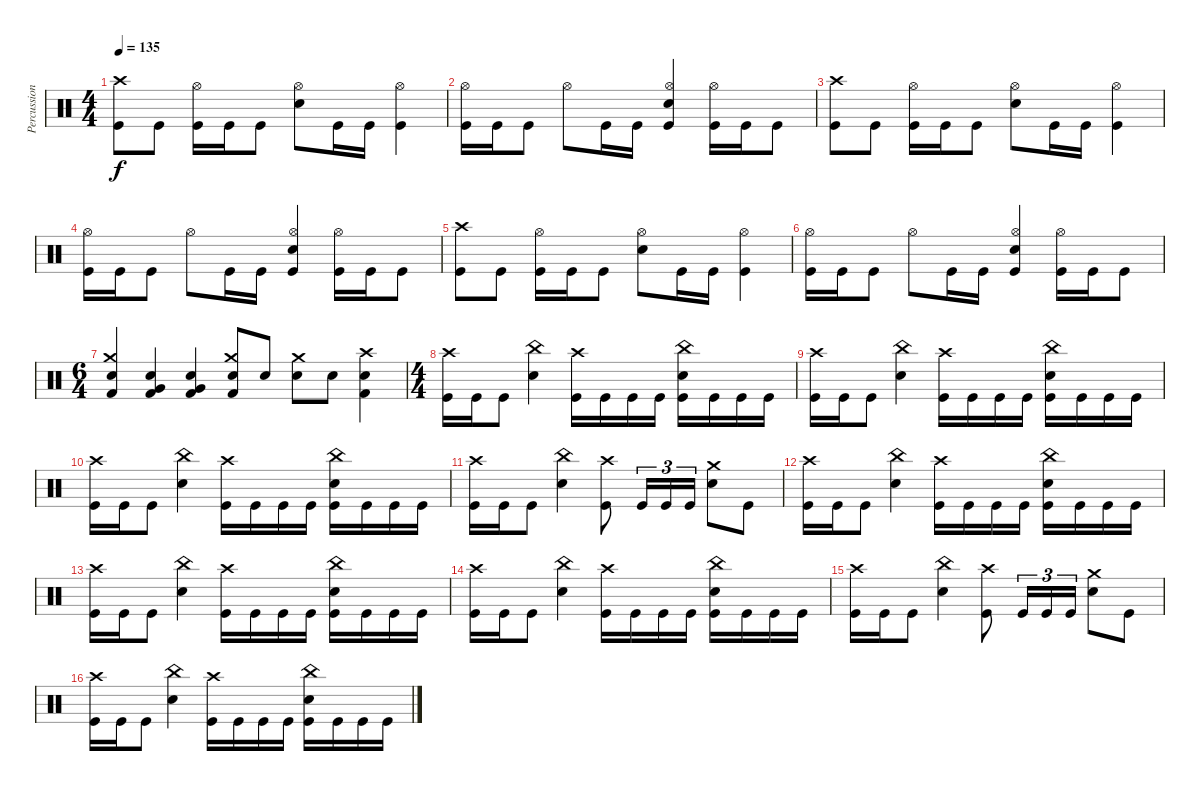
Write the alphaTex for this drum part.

\track ("Percussion" "Percussion") {instrument percussion}
\staff {score}
\articulation defaults
\ts (4 4)
\tempo 135
\clef neutral
\ks c
("Crash high (hit)" "Kick (hit)").8{dy f} "Kick (hit)".8 ("Kick (hit)" "Hi-Hat (open)").16 "Kick (hit)".16 "Kick (hit)".8 ("Snare (hit) 2" "Hi-Hat (open)").8 "Kick (hit)".16 "Kick (hit)".16 ("Kick (hit)" "Hi-Hat (open)").4 |
("Kick (hit)" "Hi-Hat (open)").16 "Kick (hit)".16 "Kick (hit)".8 "Hi-Hat (open)".8 "Kick (hit)".16 "Kick (hit)".16 ("Kick (hit)" "Snare (hit) 2" "Hi-Hat (open)").4 ("Kick (hit)" "Hi-Hat (open)").16 "Kick (hit)".16 "Kick (hit)".8 |
("Crash high (hit)" "Kick (hit)").8 "Kick (hit)".8 ("Kick (hit)" "Hi-Hat (open)").16 "Kick (hit)".16 "Kick (hit)".8 ("Snare (hit) 2" "Hi-Hat (open)").8 "Kick (hit)".16 "Kick (hit)".16 ("Kick (hit)" "Hi-Hat (open)").4 |
("Kick (hit)" "Hi-Hat (open)").16 "Kick (hit)".16 "Kick (hit)".8 "Hi-Hat (open)".8 "Kick (hit)".16 "Kick (hit)".16 ("Kick (hit)" "Snare (hit) 2" "Hi-Hat (open)").4 ("Kick (hit)" "Hi-Hat (open)").16 "Kick (hit)".16 "Kick (hit)".8 |
("Crash high (hit)" "Kick (hit)").8 "Kick (hit)".8 ("Kick (hit)" "Hi-Hat (open)").16 "Kick (hit)".16 "Kick (hit)".8 ("Snare (hit) 2" "Hi-Hat (open)").8 "Kick (hit)".16 "Kick (hit)".16 ("Kick (hit)" "Hi-Hat (open)").4 |
("Kick (hit)" "Hi-Hat (open)").16 "Kick (hit)".16 "Kick (hit)".8 "Hi-Hat (open)".8 "Kick (hit)".16 "Kick (hit)".16 ("Kick (hit)" "Snare (hit) 2" "Hi-Hat (open)").4 ("Kick (hit)" "Hi-Hat (open)").16 "Kick (hit)".16 "Kick (hit)".8 |
\ts (6 4)
("Crash medium (hit)" "Snare (hit) 2" "Kick (hit) 2").4 ("Snare (hit) 2" "Very Low Tom (hit)" "Kick (hit) 2").4 ("Snare (hit) 2" "Very Low Tom (hit)" "Kick (hit) 2").4 ("Crash medium (hit)" "Snare (hit) 2" "Kick (hit) 2").8 "Snare (hit) 2".8 ("Crash medium (hit)" "Snare (hit) 2").8 "Snare (hit) 2".8 ("Crash high (hit)" "Snare (hit) 2" "Kick (hit) 2").4 |
\ts (4 4)
("Crash high (hit)" "Kick (hit)").16 "Kick (hit)".16 "Kick (hit)".8 ("China (hit)" "Snare (hit) 2").4 ("Kick (hit)" "Crash high (hit)").16 "Kick (hit)".16 "Kick (hit)".16 "Kick (hit)".16 ("Kick (hit)" "Snare (hit) 2" "China (hit)").16 "Kick (hit)".16 "Kick (hit)".16 "Kick (hit)".16 |
("Crash high (hit)" "Kick (hit)").16 "Kick (hit)".16 "Kick (hit)".8 ("China (hit)" "Snare (hit) 2").4 ("Kick (hit)" "Crash high (hit)").16 "Kick (hit)".16 "Kick (hit)".16 "Kick (hit)".16 ("Kick (hit)" "Snare (hit) 2" "China (hit)").16 "Kick (hit)".16 "Kick (hit)".16 "Kick (hit)".16 |
("Crash high (hit)" "Kick (hit)").16 "Kick (hit)".16 "Kick (hit)".8 ("China (hit)" "Snare (hit) 2").4 ("Kick (hit)" "Crash high (hit)").16 "Kick (hit)".16 "Kick (hit)".16 "Kick (hit)".16 ("Kick (hit)" "Snare (hit) 2" "China (hit)").16 "Kick (hit)".16 "Kick (hit)".16 "Kick (hit)".16 |
("Kick (hit)" "Crash high (hit)").16 "Kick (hit)".16 "Kick (hit)".8 ("Snare (hit) 2" "China (hit)").4 ("Kick (hit)" "Crash high (hit)").8 "Kick (hit)".16{tu (3 2)} "Kick (hit)".16{tu (3 2)} "Kick (hit)".16{tu (3 2)} ("Crash medium (hit)" "Snare (hit) 2").8 "Kick (hit)".8 |
("Crash high (hit)" "Kick (hit)").16 "Kick (hit)".16 "Kick (hit)".8 ("China (hit)" "Snare (hit) 2").4 ("Kick (hit)" "Crash high (hit)").16 "Kick (hit)".16 "Kick (hit)".16 "Kick (hit)".16 ("Kick (hit)" "Snare (hit) 2" "China (hit)").16 "Kick (hit)".16 "Kick (hit)".16 "Kick (hit)".16 |
("Crash high (hit)" "Kick (hit)").16 "Kick (hit)".16 "Kick (hit)".8 ("China (hit)" "Snare (hit) 2").4 ("Kick (hit)" "Crash high (hit)").16 "Kick (hit)".16 "Kick (hit)".16 "Kick (hit)".16 ("Kick (hit)" "Snare (hit) 2" "China (hit)").16 "Kick (hit)".16 "Kick (hit)".16 "Kick (hit)".16 |
("Crash high (hit)" "Kick (hit)").16 "Kick (hit)".16 "Kick (hit)".8 ("China (hit)" "Snare (hit) 2").4 ("Kick (hit)" "Crash high (hit)").16 "Kick (hit)".16 "Kick (hit)".16 "Kick (hit)".16 ("Kick (hit)" "Snare (hit) 2" "China (hit)").16 "Kick (hit)".16 "Kick (hit)".16 "Kick (hit)".16 |
("Kick (hit)" "Crash high (hit)").16 "Kick (hit)".16 "Kick (hit)".8 ("Snare (hit) 2" "China (hit)").4 ("Kick (hit)" "Crash high (hit)").8 "Kick (hit)".16{tu (3 2)} "Kick (hit)".16{tu (3 2)} "Kick (hit)".16{tu (3 2)} ("Crash medium (hit)" "Snare (hit) 2").8 "Kick (hit)".8 |
("Crash high (hit)" "Kick (hit)").16 "Kick (hit)".16 "Kick (hit)".8 ("China (hit)" "Snare (hit) 2").4 ("Kick (hit)" "Crash high (hit)").16 "Kick (hit)".16 "Kick (hit)".16 "Kick (hit)".16 ("Kick (hit)" "Snare (hit) 2" "China (hit)").16 "Kick (hit)".16 "Kick (hit)".16 "Kick (hit)".16
